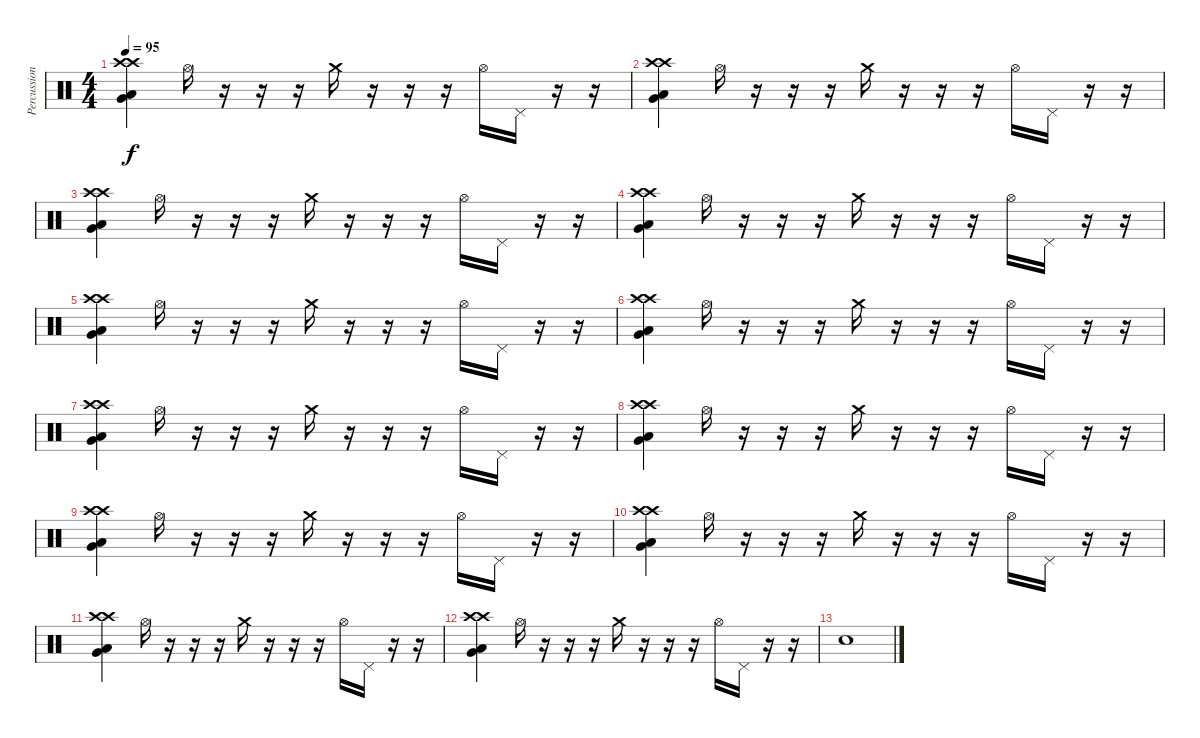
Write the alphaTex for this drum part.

\track ("Percussion" "Percussion") {instrument percussion}
\staff {score}
\articulation defaults
\ts (4 4)
\tempo 95
\clef neutral
\ks c
("Crash high (hit)" "Crash high (hit)" "Very Low Tom (hit)" "Low Floor Tom (hit)").4{dy f} "Hi-Hat (open)".16 r.16 r.16 r.16 "Crash medium (hit)".16 r.16 r.16 r.16 "Hi-Hat (open)".16 "Pedal Hi-Hat (hit)".16 r.16 r.16 |
("Crash high (hit)" "Crash high (hit)" "Very Low Tom (hit)" "Low Floor Tom (hit)").4 "Hi-Hat (open)".16 r.16 r.16 r.16 "Crash medium (hit)".16 r.16 r.16 r.16 "Hi-Hat (open)".16 "Pedal Hi-Hat (hit)".16 r.16 r.16 |
("Crash high (hit)" "Crash high (hit)" "Very Low Tom (hit)" "Low Floor Tom (hit)").4 "Hi-Hat (open)".16 r.16 r.16 r.16 "Crash medium (hit)".16 r.16 r.16 r.16 "Hi-Hat (open)".16 "Pedal Hi-Hat (hit)".16 r.16 r.16 |
("Crash high (hit)" "Crash high (hit)" "Very Low Tom (hit)" "Low Floor Tom (hit)").4 "Hi-Hat (open)".16 r.16 r.16 r.16 "Crash medium (hit)".16 r.16 r.16 r.16 "Hi-Hat (open)".16 "Pedal Hi-Hat (hit)".16 r.16 r.16 |
("Crash high (hit)" "Crash high (hit)" "Very Low Tom (hit)" "Low Floor Tom (hit)").4 "Hi-Hat (open)".16 r.16 r.16 r.16 "Crash medium (hit)".16 r.16 r.16 r.16 "Hi-Hat (open)".16 "Pedal Hi-Hat (hit)".16 r.16 r.16 |
("Crash high (hit)" "Crash high (hit)" "Very Low Tom (hit)" "Low Floor Tom (hit)").4 "Hi-Hat (open)".16 r.16 r.16 r.16 "Crash medium (hit)".16 r.16 r.16 r.16 "Hi-Hat (open)".16 "Pedal Hi-Hat (hit)".16 r.16 r.16 |
("Crash high (hit)" "Crash high (hit)" "Very Low Tom (hit)" "Low Floor Tom (hit)").4 "Hi-Hat (open)".16 r.16 r.16 r.16 "Crash medium (hit)".16 r.16 r.16 r.16 "Hi-Hat (open)".16 "Pedal Hi-Hat (hit)".16 r.16 r.16 |
("Crash high (hit)" "Crash high (hit)" "Very Low Tom (hit)" "Low Floor Tom (hit)").4 "Hi-Hat (open)".16 r.16 r.16 r.16 "Crash medium (hit)".16 r.16 r.16 r.16 "Hi-Hat (open)".16 "Pedal Hi-Hat (hit)".16 r.16 r.16 |
("Crash high (hit)" "Crash high (hit)" "Very Low Tom (hit)" "Low Floor Tom (hit)").4 "Hi-Hat (open)".16 r.16 r.16 r.16 "Crash medium (hit)".16 r.16 r.16 r.16 "Hi-Hat (open)".16 "Pedal Hi-Hat (hit)".16 r.16 r.16 |
("Crash high (hit)" "Crash high (hit)" "Very Low Tom (hit)" "Low Floor Tom (hit)").4 "Hi-Hat (open)".16 r.16 r.16 r.16 "Crash medium (hit)".16 r.16 r.16 r.16 "Hi-Hat (open)".16 "Pedal Hi-Hat (hit)".16 r.16 r.16 |
("Crash high (hit)" "Crash high (hit)" "Very Low Tom (hit)" "Low Floor Tom (hit)").4 "Hi-Hat (open)".16 r.16 r.16 r.16 "Crash medium (hit)".16 r.16 r.16 r.16 "Hi-Hat (open)".16 "Pedal Hi-Hat (hit)".16 r.16 r.16 |
("Crash high (hit)" "Crash high (hit)" "Very Low Tom (hit)" "Low Floor Tom (hit)").4 "Hi-Hat (open)".16 r.16 r.16 r.16 "Crash medium (hit)".16 r.16 r.16 r.16 "Hi-Hat (open)".16 "Pedal Hi-Hat (hit)".16 r.16 r.16 |
"Electric Snare (hit)".1
